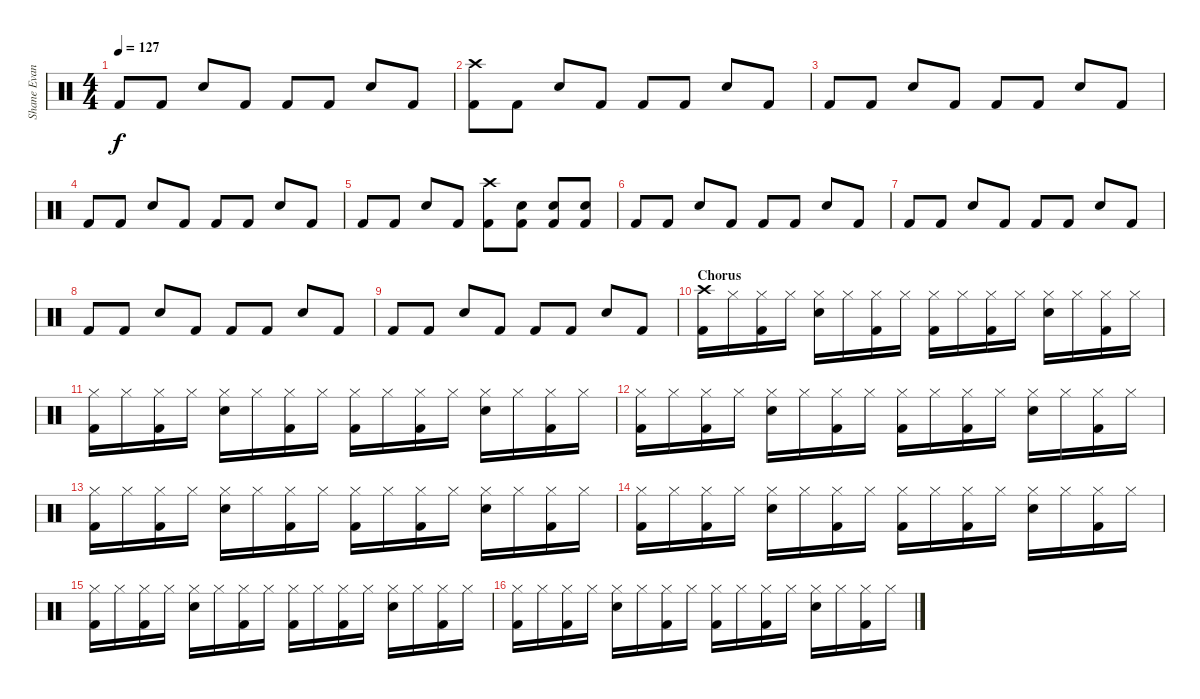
\track ("Shane Evans" "Shane Evan") {instrument percussion}
\staff {score}
\articulation defaults
\ts (4 4)
\tempo 127
\clef neutral
\ks c "Kick (hit) 2".8{dy f} "Kick (hit) 2".8 "Snare (hit) 2".8 "Kick (hit) 2".8 "Kick (hit) 2".8 "Kick (hit) 2".8 "Snare (hit) 2".8 "Kick (hit) 2".8
|
("Crash high (hit)" "Kick (hit) 2").8 "Kick (hit) 2".8 "Snare (hit) 2".8 "Kick (hit) 2".8 "Kick (hit) 2".8 "Kick (hit) 2".8 "Snare (hit) 2".8 "Kick (hit) 2".8 |
"Kick (hit) 2".8 "Kick (hit) 2".8 "Snare (hit) 2".8 "Kick (hit) 2".8 "Kick (hit) 2".8 "Kick (hit) 2".8 "Snare (hit) 2".8 "Kick (hit) 2".8 |
"Kick (hit) 2".8 "Kick (hit) 2".8 "Snare (hit) 2".8 "Kick (hit) 2".8 "Kick (hit) 2".8 "Kick (hit) 2".8 "Snare (hit) 2".8 "Kick (hit) 2".8 |
"Kick (hit) 2".8 "Kick (hit) 2".8 "Snare (hit) 2".8 "Kick (hit) 2".8 ("Crash high (hit)" "Kick (hit) 2").8 ("Snare (hit) 2" "Kick (hit) 2").8 ("Snare (hit) 2" "Kick (hit) 2").8 ("Snare (hit) 2" "Kick (hit) 2").8 |
"Kick (hit) 2".8 "Kick (hit) 2".8 "Snare (hit) 2".8 "Kick (hit) 2".8 "Kick (hit) 2".8 "Kick (hit) 2".8 "Snare (hit) 2".8 "Kick (hit) 2".8 |
"Kick (hit) 2".8 "Kick (hit) 2".8 "Snare (hit) 2".8 "Kick (hit) 2".8 "Kick (hit) 2".8 "Kick (hit) 2".8 "Snare (hit) 2".8 "Kick (hit) 2".8 |
"Kick (hit) 2".8 "Kick (hit) 2".8 "Snare (hit) 2".8 "Kick (hit) 2".8 "Kick (hit) 2".8 "Kick (hit) 2".8 "Snare (hit) 2".8 "Kick (hit) 2".8 |
"Kick (hit) 2".8 "Kick (hit) 2".8 "Snare (hit) 2".8 "Kick (hit) 2".8 "Kick (hit) 2".8 "Kick (hit) 2".8 "Snare (hit) 2".8 "Kick (hit) 2".8 |
\section ("" "Chorus")
("Crash high (hit)" "Kick (hit) 2").16 "Hi-Hat (closed)".16 ("Hi-Hat (closed)" "Kick (hit) 2").16 "Hi-Hat (closed)".16 ("Hi-Hat (closed)" "Snare (hit) 2").16 "Hi-Hat (closed)".16 ("Hi-Hat (closed)" "Kick (hit) 2").16 "Hi-Hat (closed)".16 ("Hi-Hat (closed)" "Kick (hit) 2").16 "Hi-Hat (closed)".16 ("Hi-Hat (closed)" "Kick (hit) 2").16 "Hi-Hat (closed)".16 ("Hi-Hat (closed)" "Snare (hit) 2").16 "Hi-Hat (closed)".16 ("Hi-Hat (closed)" "Kick (hit) 2").16 "Hi-Hat (closed)".16 |
("Hi-Hat (closed)" "Kick (hit) 2").16 "Hi-Hat (closed)".16 ("Hi-Hat (closed)" "Kick (hit) 2").16 "Hi-Hat (closed)".16 ("Hi-Hat (closed)" "Snare (hit) 2").16 "Hi-Hat (closed)".16 ("Hi-Hat (closed)" "Kick (hit) 2").16 "Hi-Hat (closed)".16 ("Hi-Hat (closed)" "Kick (hit) 2").16 "Hi-Hat (closed)".16 ("Hi-Hat (closed)" "Kick (hit) 2").16 "Hi-Hat (closed)".16 ("Hi-Hat (closed)" "Snare (hit) 2").16 "Hi-Hat (closed)".16 ("Hi-Hat (closed)" "Kick (hit) 2").16 "Hi-Hat (closed)".16 |
("Hi-Hat (closed)" "Kick (hit) 2").16 "Hi-Hat (closed)".16 ("Hi-Hat (closed)" "Kick (hit) 2").16 "Hi-Hat (closed)".16 ("Hi-Hat (closed)" "Snare (hit) 2").16 "Hi-Hat (closed)".16 ("Hi-Hat (closed)" "Kick (hit) 2").16 "Hi-Hat (closed)".16 ("Hi-Hat (closed)" "Kick (hit) 2").16 "Hi-Hat (closed)".16 ("Hi-Hat (closed)" "Kick (hit) 2").16 "Hi-Hat (closed)".16 ("Hi-Hat (closed)" "Snare (hit) 2").16 "Hi-Hat (closed)".16 ("Hi-Hat (closed)" "Kick (hit) 2").16 "Hi-Hat (closed)".16 |
("Hi-Hat (closed)" "Kick (hit) 2").16 "Hi-Hat (closed)".16 ("Hi-Hat (closed)" "Kick (hit) 2").16 "Hi-Hat (closed)".16 ("Hi-Hat (closed)" "Snare (hit) 2").16 "Hi-Hat (closed)".16 ("Hi-Hat (closed)" "Kick (hit) 2").16 "Hi-Hat (closed)".16 ("Hi-Hat (closed)" "Kick (hit) 2").16 "Hi-Hat (closed)".16 ("Hi-Hat (closed)" "Kick (hit) 2").16 "Hi-Hat (closed)".16 ("Hi-Hat (closed)" "Snare (hit) 2").16 "Hi-Hat (closed)".16 ("Hi-Hat (closed)" "Kick (hit) 2").16 "Hi-Hat (closed)".16 |
("Hi-Hat (closed)" "Kick (hit) 2").16 "Hi-Hat (closed)".16 ("Hi-Hat (closed)" "Kick (hit) 2").16 "Hi-Hat (closed)".16 ("Hi-Hat (closed)" "Snare (hit) 2").16 "Hi-Hat (closed)".16 ("Hi-Hat (closed)" "Kick (hit) 2").16 "Hi-Hat (closed)".16 ("Hi-Hat (closed)" "Kick (hit) 2").16 "Hi-Hat (closed)".16 ("Hi-Hat (closed)" "Kick (hit) 2").16 "Hi-Hat (closed)".16 ("Hi-Hat (closed)" "Snare (hit) 2").16 "Hi-Hat (closed)".16 ("Hi-Hat (closed)" "Kick (hit) 2").16 "Hi-Hat (closed)".16 |
("Hi-Hat (closed)" "Kick (hit) 2").16 "Hi-Hat (closed)".16 ("Hi-Hat (closed)" "Kick (hit) 2").16 "Hi-Hat (closed)".16 ("Hi-Hat (closed)" "Snare (hit) 2").16 "Hi-Hat (closed)".16 ("Hi-Hat (closed)" "Kick (hit) 2").16 "Hi-Hat (closed)".16 ("Hi-Hat (closed)" "Kick (hit) 2").16 "Hi-Hat (closed)".16 ("Hi-Hat (closed)" "Kick (hit) 2").16 "Hi-Hat (closed)".16 ("Hi-Hat (closed)" "Snare (hit) 2").16 "Hi-Hat (closed)".16 ("Hi-Hat (closed)" "Kick (hit) 2").16 "Hi-Hat (closed)".16 |
("Hi-Hat (closed)" "Kick (hit) 2").16 "Hi-Hat (closed)".16 ("Hi-Hat (closed)" "Kick (hit) 2").16 "Hi-Hat (closed)".16 ("Hi-Hat (closed)" "Snare (hit) 2").16 "Hi-Hat (closed)".16 ("Hi-Hat (closed)" "Kick (hit) 2").16 "Hi-Hat (closed)".16 ("Hi-Hat (closed)" "Kick (hit) 2").16 "Hi-Hat (closed)".16 ("Hi-Hat (closed)" "Kick (hit) 2").16 "Hi-Hat (closed)".16 ("Hi-Hat (closed)" "Snare (hit) 2").16 "Hi-Hat (closed)".16 ("Hi-Hat (closed)" "Kick (hit) 2").16 "Hi-Hat (closed)".16
